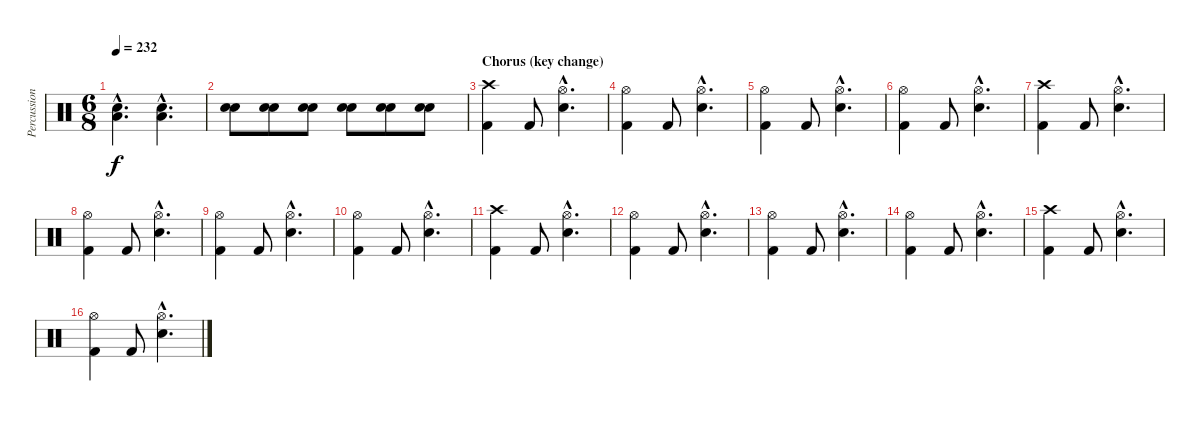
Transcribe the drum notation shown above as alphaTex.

\track ("Percussion" "Percussion") {instrument percussion}
\staff {score}
\articulation defaults
\ts (6 8)
\tempo 232
\clef neutral
\ks c
("Electric Snare (hit)"{hac} "Low Floor Tom (hit)"{hac}).4{d dy f} ("Electric Snare (hit)"{hac} "Low Floor Tom (hit)"{hac}).4{d} |
("Electric Snare (hit)" "Electric Snare (hit)").8{volume 13} ("Electric Snare (hit)" "Electric Snare (hit)").8 ("Electric Snare (hit)" "Electric Snare (hit)").8 ("Electric Snare (hit)" "Electric Snare (hit)").8 ("Electric Snare (hit)" "Electric Snare (hit)").8 ("Electric Snare (hit)" "Electric Snare (hit)").8 |
\section ("" "Chorus (key change)")
("Crash high (hit)" "Kick (hit) 2").4 "Kick (hit) 2".8 ("Hi-Hat (open)"{hac} "Electric Snare (hit)"{hac}).4{d} |
("Hi-Hat (open)" "Kick (hit) 2").4 "Kick (hit) 2".8 ("Hi-Hat (open)"{hac} "Electric Snare (hit)"{hac}).4{d} |
("Hi-Hat (open)" "Kick (hit) 2").4 "Kick (hit) 2".8 ("Hi-Hat (open)"{hac} "Electric Snare (hit)"{hac}).4{d} |
("Hi-Hat (open)" "Kick (hit) 2").4 "Kick (hit) 2".8 ("Hi-Hat (open)"{hac} "Electric Snare (hit)"{hac}).4{d} |
("Crash high (hit)" "Kick (hit) 2").4 "Kick (hit) 2".8 ("Hi-Hat (open)"{hac} "Electric Snare (hit)"{hac}).4{d} |
("Hi-Hat (open)" "Kick (hit) 2").4 "Kick (hit) 2".8 ("Hi-Hat (open)"{hac} "Electric Snare (hit)"{hac}).4{d} |
("Hi-Hat (open)" "Kick (hit) 2").4 "Kick (hit) 2".8 ("Hi-Hat (open)"{hac} "Electric Snare (hit)"{hac}).4{d} |
("Hi-Hat (open)" "Kick (hit) 2").4 "Kick (hit) 2".8 ("Hi-Hat (open)"{hac} "Electric Snare (hit)"{hac}).4{d} |
("Crash high (hit)" "Kick (hit) 2").4 "Kick (hit) 2".8 ("Hi-Hat (open)"{hac} "Electric Snare (hit)"{hac}).4{d} |
("Hi-Hat (open)" "Kick (hit) 2").4 "Kick (hit) 2".8 ("Hi-Hat (open)"{hac} "Electric Snare (hit)"{hac}).4{d} |
("Hi-Hat (open)" "Kick (hit) 2").4 "Kick (hit) 2".8 ("Hi-Hat (open)"{hac} "Electric Snare (hit)"{hac}).4{d} |
("Hi-Hat (open)" "Kick (hit) 2").4 "Kick (hit) 2".8 ("Hi-Hat (open)"{hac} "Electric Snare (hit)"{hac}).4{d} |
("Crash high (hit)" "Kick (hit) 2").4 "Kick (hit) 2".8 ("Hi-Hat (open)"{hac} "Electric Snare (hit)"{hac}).4{d} |
("Hi-Hat (open)" "Kick (hit) 2").4 "Kick (hit) 2".8 ("Hi-Hat (open)"{hac} "Electric Snare (hit)"{hac}).4{d}
